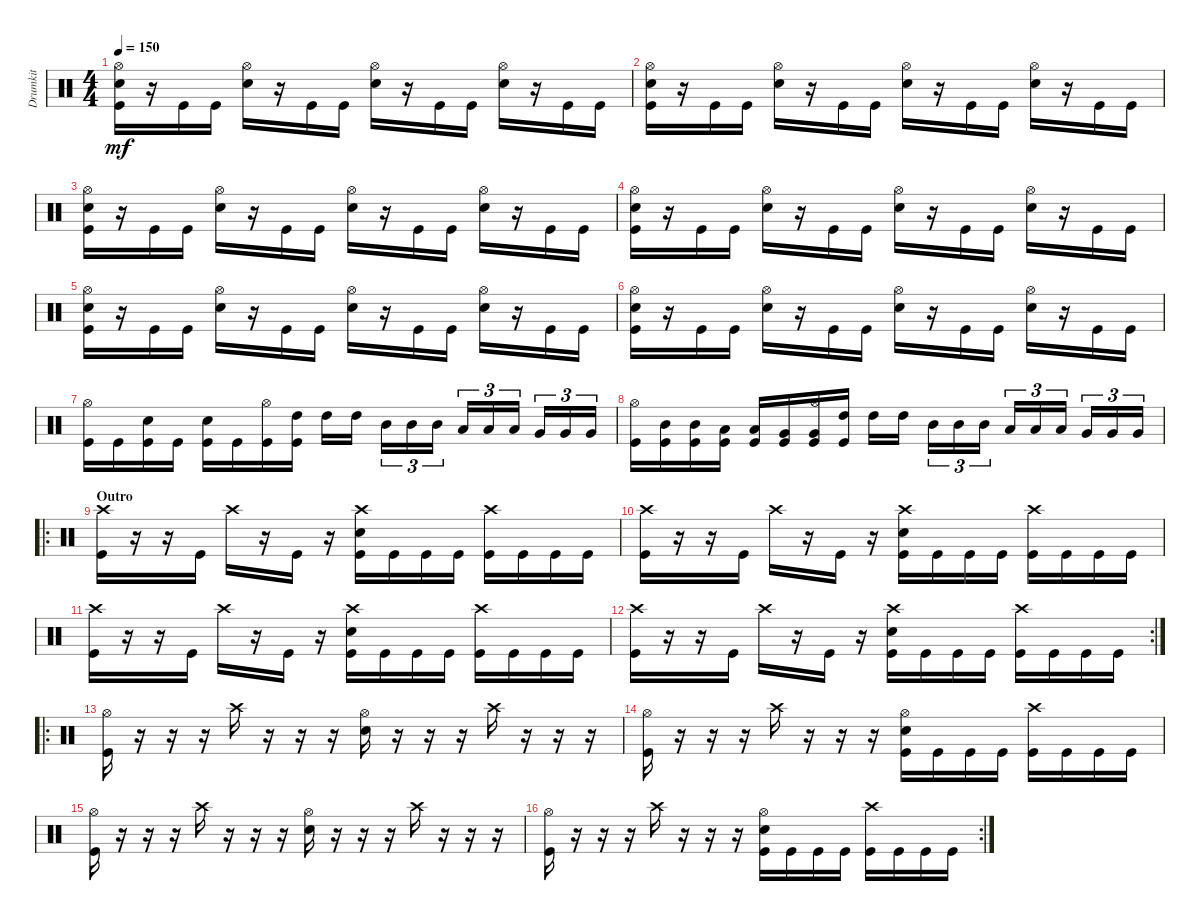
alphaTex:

\track ("Drumkit" "Drumkit") {instrument percussion}
\staff {score}
\articulation defaults
\ts (4 4)
\tempo 150
\clef neutral
\ks c
("Snare (hit) 2" "Kick (hit)" "Hi-Hat (open)").16{dy mf} r.16 "Kick (hit)".16 "Kick (hit)".16 ("Snare (hit) 2" "Hi-Hat (open)").16 r.16 "Kick (hit)".16 "Kick (hit)".16 ("Snare (hit) 2" "Hi-Hat (open)").16 r.16 "Kick (hit)".16 "Kick (hit)".16 ("Snare (hit) 2" "Hi-Hat (open)").16 r.16 "Kick (hit)".16 "Kick (hit)".16 |
("Snare (hit) 2" "Kick (hit)" "Hi-Hat (open)").16 r.16 "Kick (hit)".16 "Kick (hit)".16 ("Snare (hit) 2" "Hi-Hat (open)").16 r.16 "Kick (hit)".16 "Kick (hit)".16 ("Snare (hit) 2" "Hi-Hat (open)").16 r.16 "Kick (hit)".16 "Kick (hit)".16 ("Snare (hit) 2" "Hi-Hat (open)").16 r.16 "Kick (hit)".16 "Kick (hit)".16 |
("Snare (hit) 2" "Kick (hit)" "Hi-Hat (open)").16 r.16 "Kick (hit)".16 "Kick (hit)".16 ("Snare (hit) 2" "Hi-Hat (open)").16 r.16 "Kick (hit)".16 "Kick (hit)".16 ("Snare (hit) 2" "Hi-Hat (open)").16 r.16 "Kick (hit)".16 "Kick (hit)".16 ("Snare (hit) 2" "Hi-Hat (open)").16 r.16 "Kick (hit)".16 "Kick (hit)".16 |
("Snare (hit) 2" "Kick (hit)" "Hi-Hat (open)").16 r.16 "Kick (hit)".16 "Kick (hit)".16 ("Snare (hit) 2" "Hi-Hat (open)").16 r.16 "Kick (hit)".16 "Kick (hit)".16 ("Snare (hit) 2" "Hi-Hat (open)").16 r.16 "Kick (hit)".16 "Kick (hit)".16 ("Snare (hit) 2" "Hi-Hat (open)").16 r.16 "Kick (hit)".16 "Kick (hit)".16 |
("Snare (hit) 2" "Kick (hit)" "Hi-Hat (open)").16 r.16 "Kick (hit)".16 "Kick (hit)".16 ("Snare (hit) 2" "Hi-Hat (open)").16 r.16 "Kick (hit)".16 "Kick (hit)".16 ("Snare (hit) 2" "Hi-Hat (open)").16 r.16 "Kick (hit)".16 "Kick (hit)".16 ("Snare (hit) 2" "Hi-Hat (open)").16 r.16 "Kick (hit)".16 "Kick (hit)".16 |
("Snare (hit) 2" "Kick (hit)" "Hi-Hat (open)").16 r.16 "Kick (hit)".16 "Kick (hit)".16 ("Snare (hit) 2" "Hi-Hat (open)").16 r.16 "Kick (hit)".16 "Kick (hit)".16 ("Snare (hit) 2" "Hi-Hat (open)").16 r.16 "Kick (hit)".16 "Kick (hit)".16 ("Snare (hit) 2" "Hi-Hat (open)").16 r.16 "Kick (hit)".16 "Kick (hit)".16 |
("Hi-Hat (open)" "Kick (hit)").16 "Kick (hit)".16 ("Snare (hit) 2" "Kick (hit)").16 "Kick (hit)".16 ("Snare (hit) 2" "Kick (hit)").16 "Kick (hit)".16 ("Hi-Hat (open)" "Kick (hit)").16 ("High Tom (hit)" "Kick (hit)").16 "High Tom (hit)".16 "High Tom (hit)".16 "Mid Tom (hit)".16{tu (3 2)} "Mid Tom (hit)".16{tu (3 2)} "Mid Tom (hit)".16{tu (3 2)} "Low Tom (hit)".16{tu (3 2)} "Low Tom (hit)".16{tu (3 2)} "Low Tom (hit)".16{tu (3 2)} "Very Low Tom (hit)".16{tu (3 2)} "Very Low Tom (hit)".16{tu (3 2)} "Very Low Tom (hit)".16{tu (3 2)} |
("Hi-Hat (open)" "Kick (hit)").16 ("Kick (hit)" "Mid Tom (hit)").16 ("Kick (hit)" "Mid Tom (hit)").16 ("Kick (hit)" "Low Tom (hit)").16 ("Kick (hit)" "Low Tom (hit)").16 ("Kick (hit)" "Very Low Tom (hit)").16 ("Hi-Hat (open)" "Kick (hit)" "Very Low Tom (hit)").16 ("High Tom (hit)" "Kick (hit)").16 "High Tom (hit)".16 "High Tom (hit)".16 "Mid Tom (hit)".16{tu (3 2)} "Mid Tom (hit)".16{tu (3 2)} "Mid Tom (hit)".16{tu (3 2)} "Low Tom (hit)".16{tu (3 2)} "Low Tom (hit)".16{tu (3 2)} "Low Tom (hit)".16{tu (3 2)} "Very Low Tom (hit)".16{tu (3 2)} "Very Low Tom (hit)".16{tu (3 2)} "Very Low Tom (hit)".16{tu (3 2)} |
\ro
\section ("" "Outro")
("Kick (hit)" "Crash high (hit)").16 r.16 r.16 "Kick (hit)".16 "Crash high (hit)".16 r.16 "Kick (hit)".16 r.16 ("Snare (hit) 2" "Kick (hit)" "Crash high (hit)").16 "Kick (hit)".16 "Kick (hit)".16 "Kick (hit)".16 ("Crash high (hit)" "Kick (hit)").16 "Kick (hit)".16 "Kick (hit)".16 "Kick (hit)".16 |
("Kick (hit)" "Crash high (hit)").16 r.16 r.16 "Kick (hit)".16 "Crash high (hit)".16 r.16 "Kick (hit)".16 r.16 ("Snare (hit) 2" "Kick (hit)" "Crash high (hit)").16 "Kick (hit)".16 "Kick (hit)".16 "Kick (hit)".16 ("Crash high (hit)" "Kick (hit)").16 "Kick (hit)".16 "Kick (hit)".16 "Kick (hit)".16 |
("Kick (hit)" "Crash high (hit)").16 r.16 r.16 "Kick (hit)".16 "Crash high (hit)".16 r.16 "Kick (hit)".16 r.16 ("Snare (hit) 2" "Kick (hit)" "Crash high (hit)").16 "Kick (hit)".16 "Kick (hit)".16 "Kick (hit)".16 ("Crash high (hit)" "Kick (hit)").16 "Kick (hit)".16 "Kick (hit)".16 "Kick (hit)".16 |
\rc 2
("Kick (hit)" "Crash high (hit)").16 r.16 r.16 "Kick (hit)".16 "Crash high (hit)".16 r.16 "Kick (hit)".16 r.16 ("Snare (hit) 2" "Kick (hit)" "Crash high (hit)").16 "Kick (hit)".16 "Kick (hit)".16 "Kick (hit)".16 ("Crash high (hit)" "Kick (hit)").16 "Kick (hit)".16 "Kick (hit)".16 "Kick (hit)".16 |
\ro
("Kick (hit)" "Hi-Hat (open)").16 r.16 r.16 r.16 "Crash high (hit)".16 r.16 r.16 r.16 ("Snare (hit) 2" "Hi-Hat (open)").16 r.16 r.16 r.16 "Crash high (hit)".16 r.16 r.16 r.16 |
("Kick (hit)" "Hi-Hat (open)").16 r.16 r.16 r.16 "Crash high (hit)".16 r.16 r.16 r.16 ("Snare (hit) 2" "Hi-Hat (open)" "Kick (hit)").16 "Kick (hit)".16 "Kick (hit)".16 "Kick (hit)".16 ("Crash high (hit)" "Kick (hit)").16 "Kick (hit)".16 "Kick (hit)".16 "Kick (hit)".16 |
("Kick (hit)" "Hi-Hat (open)").16 r.16 r.16 r.16 "Crash high (hit)".16 r.16 r.16 r.16 ("Snare (hit) 2" "Hi-Hat (open)").16 r.16 r.16 r.16 "Crash high (hit)".16 r.16 r.16 r.16 |
\rc 2
("Kick (hit)" "Hi-Hat (open)").16 r.16 r.16 r.16 "Crash high (hit)".16 r.16 r.16 r.16 ("Snare (hit) 2" "Hi-Hat (open)" "Kick (hit)").16 "Kick (hit)".16 "Kick (hit)".16 "Kick (hit)".16 ("Crash high (hit)" "Kick (hit)").16 "Kick (hit)".16 "Kick (hit)".16 "Kick (hit)".16
